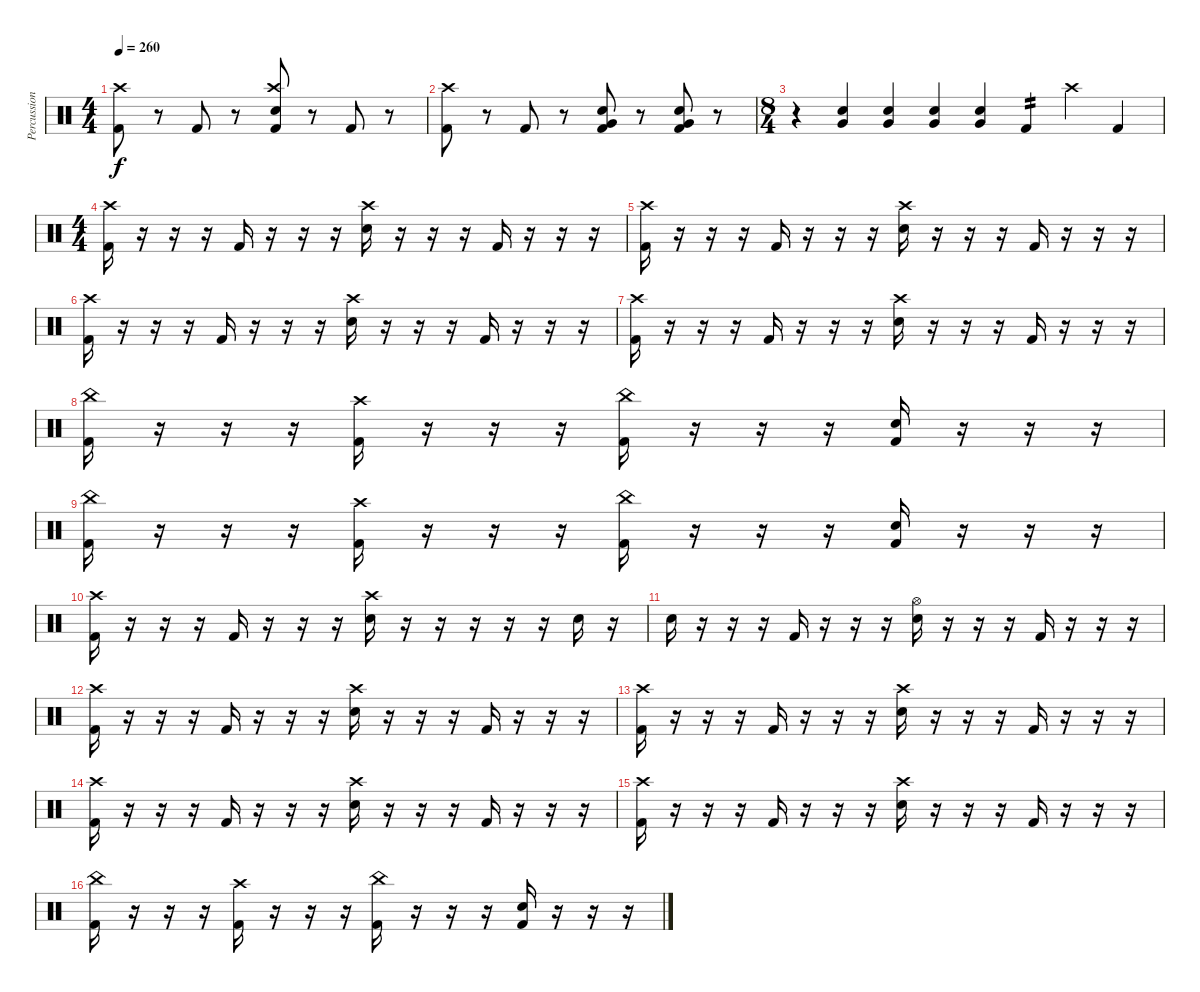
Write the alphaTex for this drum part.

\track ("Percussion" "Percussion") {instrument percussion}
\staff {score}
\articulation defaults
\ts (4 4)
\tempo 260
\clef neutral
\ks c
("Kick (hit) 2" "Crash high (hit)").8{dy f} r.8 "Kick (hit) 2".8 r.8 ("Kick (hit) 2" "Snare (hit) 2" "Crash high (hit)").8 r.8 "Kick (hit) 2".8 r.8 |
("Kick (hit) 2" "Crash high (hit)").8 r.8 "Kick (hit) 2".8 r.8 ("Kick (hit) 2" "Snare (hit) 2" "Very Low Tom (hit)").8 r.8 ("Kick (hit) 2" "Snare (hit) 2" "Very Low Tom (hit)").8 r.8 |
\ts (8 4)
r.4 ("Snare (hit) 2" "Very Low Tom (hit)").4 ("Snare (hit) 2" "Very Low Tom (hit)").4 ("Snare (hit) 2" "Very Low Tom (hit)").4 ("Snare (hit) 2" "Very Low Tom (hit)").4 "Kick (hit) 2".4{tp 2} "Crash high (hit)".4 "Kick (hit) 2".4 |
\ts (4 4)
("Kick (hit) 2" "Crash high (hit)").16 r.16 r.16 r.16 "Kick (hit) 2".16 r.16 r.16 r.16 ("Snare (hit) 2" "Crash high (hit)").16 r.16 r.16 r.16 "Kick (hit) 2".16 r.16 r.16 r.16 |
("Kick (hit) 2" "Crash high (hit)").16 r.16 r.16 r.16 "Kick (hit) 2".16 r.16 r.16 r.16 ("Snare (hit) 2" "Crash high (hit)").16 r.16 r.16 r.16 "Kick (hit) 2".16 r.16 r.16 r.16 |
("Kick (hit) 2" "Crash high (hit)").16 r.16 r.16 r.16 "Kick (hit) 2".16 r.16 r.16 r.16 ("Snare (hit) 2" "Crash high (hit)").16 r.16 r.16 r.16 "Kick (hit) 2".16 r.16 r.16 r.16 |
("Kick (hit) 2" "Crash high (hit)").16 r.16 r.16 r.16 "Kick (hit) 2".16 r.16 r.16 r.16 ("Snare (hit) 2" "Crash high (hit)").16 r.16 r.16 r.16 "Kick (hit) 2".16 r.16 r.16 r.16 |
("Kick (hit) 2" "China (hit)").16 r.16 r.16 r.16 ("Kick (hit) 2" "Crash high (hit)").16 r.16 r.16 r.16 ("Kick (hit) 2" "China (hit)").16 r.16 r.16 r.16 ("Kick (hit) 2" "Snare (hit) 2").16 r.16 r.16 r.16 |
("Kick (hit) 2" "China (hit)").16 r.16 r.16 r.16 ("Kick (hit) 2" "Crash high (hit)").16 r.16 r.16 r.16 ("Kick (hit) 2" "China (hit)").16 r.16 r.16 r.16 ("Kick (hit) 2" "Snare (hit) 2").16 r.16 r.16 r.16 |
("Kick (hit) 2" "Crash high (hit)").16 r.16 r.16 r.16 "Kick (hit) 2".16 r.16 r.16 r.16 ("Snare (hit) 2" "Crash high (hit)").16 r.16 r.16 r.16 r.16 r.16 "Snare (hit) 2".16 r.16 |
"Snare (hit) 2".16 r.16 r.16 r.16 "Kick (hit) 2".16 r.16 r.16 r.16 ("Snare (hit) 2" "Hi-Hat (open)").16 r.16 r.16 r.16 "Kick (hit) 2".16 r.16 r.16 r.16 |
("Kick (hit) 2" "Crash high (hit)").16 r.16 r.16 r.16 "Kick (hit) 2".16 r.16 r.16 r.16 ("Snare (hit) 2" "Crash high (hit)").16 r.16 r.16 r.16 "Kick (hit) 2".16 r.16 r.16 r.16 |
("Kick (hit) 2" "Crash high (hit)").16 r.16 r.16 r.16 "Kick (hit) 2".16 r.16 r.16 r.16 ("Snare (hit) 2" "Crash high (hit)").16 r.16 r.16 r.16 "Kick (hit) 2".16 r.16 r.16 r.16 |
("Kick (hit) 2" "Crash high (hit)").16 r.16 r.16 r.16 "Kick (hit) 2".16 r.16 r.16 r.16 ("Snare (hit) 2" "Crash high (hit)").16 r.16 r.16 r.16 "Kick (hit) 2".16 r.16 r.16 r.16 |
("Kick (hit) 2" "Crash high (hit)").16 r.16 r.16 r.16 "Kick (hit) 2".16 r.16 r.16 r.16 ("Snare (hit) 2" "Crash high (hit)").16 r.16 r.16 r.16 "Kick (hit) 2".16 r.16 r.16 r.16 |
("Kick (hit) 2" "China (hit)").16 r.16 r.16 r.16 ("Kick (hit) 2" "Crash high (hit)").16 r.16 r.16 r.16 ("Kick (hit) 2" "China (hit)").16 r.16 r.16 r.16 ("Kick (hit) 2" "Snare (hit) 2").16 r.16 r.16 r.16
